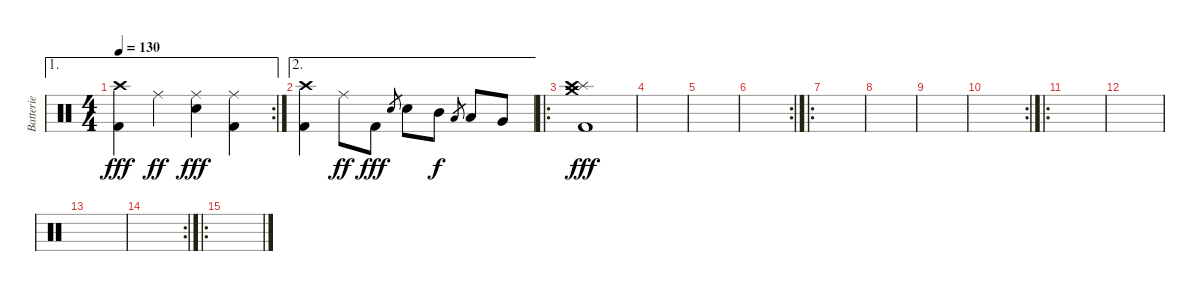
\track ("Batterie" "Batterie") {instrument percussion}
\staff {score}
\articulation defaults
\ae 1
\rc 2
\ts (4 4)
\tempo 130
\clef neutral
\ks c
("Crash high (hit)" "Kick (hit) 2").4{dy fff} "Ride (middle)".4{dy ff} ("Ride (middle)" "Snare (hit) 2").4{dy fff} ("Ride (middle)" "Kick (hit) 2").4 |
\ae 2
("Crash high (hit)" "Kick (hit) 2").4 "Ride (middle)".8{dy ff} "Kick (hit) 2".8{dy fff} "Snare (hit) 2".8{gr} "Snare (hit) 2".8 "Mid Tom (hit)".8{dy f} "Low Tom (hit)".8{gr} "Low Tom (hit)".8 "Very Low Tom (hit)".8 |
\ro
("Splash (hit)" "Crash medium (hit)" "Crash high (hit)" "Kick (hit) 2").1{dy fff} |
|
|
\rc 2
|
\ro
|
|
|
\rc 2
|
\ro
|
|
|
\rc 2
|
\ro
